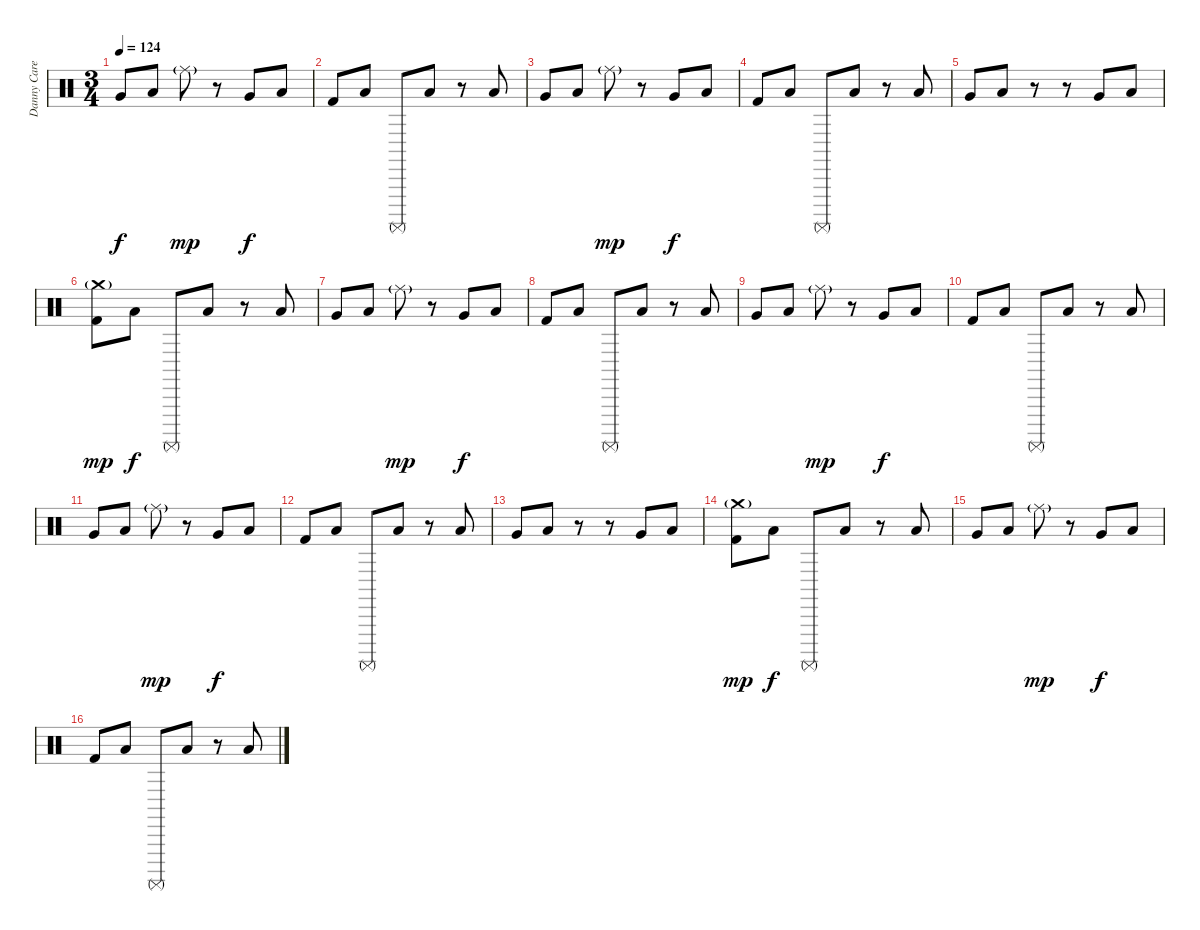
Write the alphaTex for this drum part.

\track ("Danny Carey" "Danny Care") {instrument percussion}
\staff {score}
\articulation defaults
\ts (3 4)
\tempo 124
\clef neutral
\ks c "Very Low Tom (hit)".8{dy f} "Low Tom (hit)".8 "Ride (middle)"{g}.8{dy mp}
r.8 "Very Low Tom (hit)".8{dy f} "Low Floor Tom (hit)".8 |
"Kick (hit) 2".8 "Low Tom (hit)".8 "Surdo (mute)".8 "Low Tom (hit)".8 r.8 "Low Tom (hit)".8 |
"Very Low Tom (hit)".8 "Low Tom (hit)".8 "Ride (middle)"{g}.8{dy mp} r.8 "Very Low Tom (hit)".8{dy f} "Low Floor Tom (hit)".8 |
"Kick (hit) 2".8 "Low Tom (hit)".8 "Surdo (mute)".8 "Low Tom (hit)".8 r.8 "Low Tom (hit)".8 |
"Very Low Tom (hit)".8 "Low Tom (hit)".8 r.8 r.8 "Very Low Tom (hit)".8 "Low Floor Tom (hit)".8 |
("Crash medium (hit)"{g} "Kick (hit) 2").8{dy mp} "Low Tom (hit)".8{dy f} "Surdo (mute)".8 "Low Tom (hit)".8 r.8 "Low Tom (hit)".8 |
"Very Low Tom (hit)".8 "Low Tom (hit)".8 "Ride (middle)"{g}.8{dy mp} r.8 "Very Low Tom (hit)".8{dy f} "Low Floor Tom (hit)".8 |
"Kick (hit) 2".8 "Low Tom (hit)".8 "Surdo (mute)".8 "Low Tom (hit)".8 r.8 "Low Tom (hit)".8 |
"Very Low Tom (hit)".8 "Low Tom (hit)".8 "Ride (middle)"{g}.8{dy mp} r.8 "Very Low Tom (hit)".8{dy f} "Low Floor Tom (hit)".8 |
"Kick (hit) 2".8 "Low Tom (hit)".8 "Surdo (mute)".8 "Low Tom (hit)".8 r.8 "Low Tom (hit)".8 |
"Very Low Tom (hit)".8 "Low Tom (hit)".8 "Ride (middle)"{g}.8{dy mp} r.8 "Very Low Tom (hit)".8{dy f} "Low Floor Tom (hit)".8 |
"Kick (hit) 2".8 "Low Tom (hit)".8 "Surdo (mute)".8 "Low Tom (hit)".8 r.8 "Low Tom (hit)".8 |
"Very Low Tom (hit)".8 "Low Tom (hit)".8 r.8 r.8 "Very Low Tom (hit)".8 "Low Floor Tom (hit)".8 |
("Crash medium (hit)"{g} "Kick (hit) 2").8{dy mp} "Low Tom (hit)".8{dy f} "Surdo (mute)".8 "Low Tom (hit)".8 r.8 "Low Tom (hit)".8 |
"Very Low Tom (hit)".8 "Low Tom (hit)".8 "Ride (middle)"{g}.8{dy mp} r.8 "Very Low Tom (hit)".8{dy f} "Low Floor Tom (hit)".8 |
"Kick (hit) 2".8 "Low Tom (hit)".8 "Surdo (mute)".8 "Low Tom (hit)".8 r.8 "Low Tom (hit)".8
